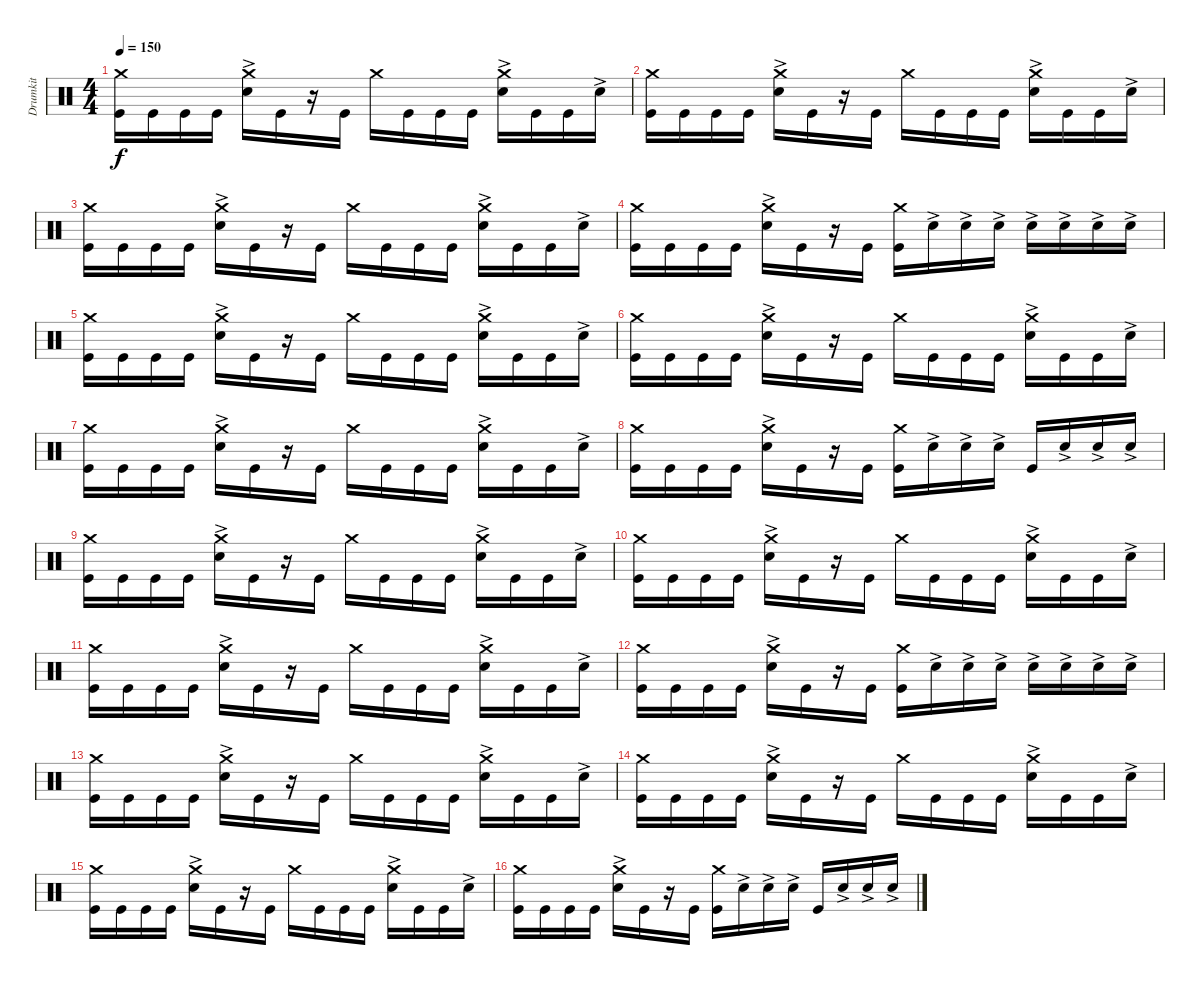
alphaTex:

\track ("Drumkit" "Drumkit") {instrument percussion}
\staff {score}
\articulation defaults
\ts (4 4)
\tempo 150
\clef neutral
\ks c
("Crash medium (hit)" "Kick (hit)").16{dy f} "Kick (hit)".16 "Kick (hit)".16 "Kick (hit)".16 ("Crash medium (hit)" "Snare (hit) 2"{ac}).16 "Kick (hit)".16 r.16 "Kick (hit)".16 "Crash medium (hit)".16 "Kick (hit)".16 "Kick (hit)".16 "Kick (hit)".16 ("Crash medium (hit)" "Snare (hit) 2"{ac}).16 "Kick (hit)".16 "Kick (hit)".16 "Snare (hit) 2"{ac}.16 |
("Crash medium (hit)" "Kick (hit)").16 "Kick (hit)".16 "Kick (hit)".16 "Kick (hit)".16 ("Crash medium (hit)" "Snare (hit) 2"{ac}).16 "Kick (hit)".16 r.16 "Kick (hit)".16 "Crash medium (hit)".16 "Kick (hit)".16 "Kick (hit)".16 "Kick (hit)".16 ("Crash medium (hit)" "Snare (hit) 2"{ac}).16 "Kick (hit)".16 "Kick (hit)".16 "Snare (hit) 2"{ac}.16 |
("Crash medium (hit)" "Kick (hit)").16 "Kick (hit)".16 "Kick (hit)".16 "Kick (hit)".16 ("Crash medium (hit)" "Snare (hit) 2"{ac}).16 "Kick (hit)".16 r.16 "Kick (hit)".16 "Crash medium (hit)".16 "Kick (hit)".16 "Kick (hit)".16 "Kick (hit)".16 ("Crash medium (hit)" "Snare (hit) 2"{ac}).16 "Kick (hit)".16 "Kick (hit)".16 "Snare (hit) 2"{ac}.16 |
("Crash medium (hit)" "Kick (hit)").16 "Kick (hit)".16 "Kick (hit)".16 "Kick (hit)".16 ("Crash medium (hit)" "Snare (hit) 2"{ac}).16 "Kick (hit)".16 r.16 "Kick (hit)".16 ("Kick (hit)" "Crash medium (hit)").16 "Snare (hit) 2"{ac}.16 "Snare (hit) 2"{ac}.16 "Snare (hit) 2"{ac}.16 "Snare (hit) 2"{ac}.16 "Snare (hit) 2"{ac}.16 "Snare (hit) 2"{ac}.16 "Snare (hit) 2"{ac}.16 |
("Crash medium (hit)" "Kick (hit)").16 "Kick (hit)".16 "Kick (hit)".16 "Kick (hit)".16 ("Crash medium (hit)" "Snare (hit) 2"{ac}).16 "Kick (hit)".16 r.16 "Kick (hit)".16 "Crash medium (hit)".16 "Kick (hit)".16 "Kick (hit)".16 "Kick (hit)".16 ("Crash medium (hit)" "Snare (hit) 2"{ac}).16 "Kick (hit)".16 "Kick (hit)".16 "Snare (hit) 2"{ac}.16 |
("Crash medium (hit)" "Kick (hit)").16 "Kick (hit)".16 "Kick (hit)".16 "Kick (hit)".16 ("Crash medium (hit)" "Snare (hit) 2"{ac}).16 "Kick (hit)".16 r.16 "Kick (hit)".16 "Crash medium (hit)".16 "Kick (hit)".16 "Kick (hit)".16 "Kick (hit)".16 ("Crash medium (hit)" "Snare (hit) 2"{ac}).16 "Kick (hit)".16 "Kick (hit)".16 "Snare (hit) 2"{ac}.16 |
("Crash medium (hit)" "Kick (hit)").16 "Kick (hit)".16 "Kick (hit)".16 "Kick (hit)".16 ("Crash medium (hit)" "Snare (hit) 2"{ac}).16 "Kick (hit)".16 r.16 "Kick (hit)".16 "Crash medium (hit)".16 "Kick (hit)".16 "Kick (hit)".16 "Kick (hit)".16 ("Crash medium (hit)" "Snare (hit) 2"{ac}).16 "Kick (hit)".16 "Kick (hit)".16 "Snare (hit) 2"{ac}.16 |
("Crash medium (hit)" "Kick (hit)").16 "Kick (hit)".16 "Kick (hit)".16 "Kick (hit)".16 ("Crash medium (hit)" "Snare (hit) 2"{ac}).16 "Kick (hit)".16 r.16 "Kick (hit)".16 ("Kick (hit)" "Crash medium (hit)").16 "Snare (hit) 2"{ac}.16 "Snare (hit) 2"{ac}.16 "Snare (hit) 2"{ac}.16 "Kick (hit)".16 "Snare (hit) 2"{ac}.16 "Snare (hit) 2"{ac}.16 "Snare (hit) 2"{ac}.16 |
("Crash medium (hit)" "Kick (hit)").16 "Kick (hit)".16 "Kick (hit)".16 "Kick (hit)".16 ("Crash medium (hit)" "Snare (hit) 2"{ac}).16 "Kick (hit)".16 r.16 "Kick (hit)".16 "Crash medium (hit)".16 "Kick (hit)".16 "Kick (hit)".16 "Kick (hit)".16 ("Crash medium (hit)" "Snare (hit) 2"{ac}).16 "Kick (hit)".16 "Kick (hit)".16 "Snare (hit) 2"{ac}.16 |
("Crash medium (hit)" "Kick (hit)").16 "Kick (hit)".16 "Kick (hit)".16 "Kick (hit)".16 ("Crash medium (hit)" "Snare (hit) 2"{ac}).16 "Kick (hit)".16 r.16 "Kick (hit)".16 "Crash medium (hit)".16 "Kick (hit)".16 "Kick (hit)".16 "Kick (hit)".16 ("Crash medium (hit)" "Snare (hit) 2"{ac}).16 "Kick (hit)".16 "Kick (hit)".16 "Snare (hit) 2"{ac}.16 |
("Crash medium (hit)" "Kick (hit)").16 "Kick (hit)".16 "Kick (hit)".16 "Kick (hit)".16 ("Crash medium (hit)" "Snare (hit) 2"{ac}).16 "Kick (hit)".16 r.16 "Kick (hit)".16 "Crash medium (hit)".16 "Kick (hit)".16 "Kick (hit)".16 "Kick (hit)".16 ("Crash medium (hit)" "Snare (hit) 2"{ac}).16 "Kick (hit)".16 "Kick (hit)".16 "Snare (hit) 2"{ac}.16 |
("Crash medium (hit)" "Kick (hit)").16 "Kick (hit)".16 "Kick (hit)".16 "Kick (hit)".16 ("Crash medium (hit)" "Snare (hit) 2"{ac}).16 "Kick (hit)".16 r.16 "Kick (hit)".16 ("Kick (hit)" "Crash medium (hit)").16 "Snare (hit) 2"{ac}.16 "Snare (hit) 2"{ac}.16 "Snare (hit) 2"{ac}.16 "Snare (hit) 2"{ac}.16 "Snare (hit) 2"{ac}.16 "Snare (hit) 2"{ac}.16 "Snare (hit) 2"{ac}.16 |
("Crash medium (hit)" "Kick (hit)").16 "Kick (hit)".16 "Kick (hit)".16 "Kick (hit)".16 ("Crash medium (hit)" "Snare (hit) 2"{ac}).16 "Kick (hit)".16 r.16 "Kick (hit)".16 "Crash medium (hit)".16 "Kick (hit)".16 "Kick (hit)".16 "Kick (hit)".16 ("Crash medium (hit)" "Snare (hit) 2"{ac}).16 "Kick (hit)".16 "Kick (hit)".16 "Snare (hit) 2"{ac}.16 |
("Crash medium (hit)" "Kick (hit)").16 "Kick (hit)".16 "Kick (hit)".16 "Kick (hit)".16 ("Crash medium (hit)" "Snare (hit) 2"{ac}).16 "Kick (hit)".16 r.16 "Kick (hit)".16 "Crash medium (hit)".16 "Kick (hit)".16 "Kick (hit)".16 "Kick (hit)".16 ("Crash medium (hit)" "Snare (hit) 2"{ac}).16 "Kick (hit)".16 "Kick (hit)".16 "Snare (hit) 2"{ac}.16 |
("Crash medium (hit)" "Kick (hit)").16 "Kick (hit)".16 "Kick (hit)".16 "Kick (hit)".16 ("Crash medium (hit)" "Snare (hit) 2"{ac}).16 "Kick (hit)".16 r.16 "Kick (hit)".16 "Crash medium (hit)".16 "Kick (hit)".16 "Kick (hit)".16 "Kick (hit)".16 ("Crash medium (hit)" "Snare (hit) 2"{ac}).16 "Kick (hit)".16 "Kick (hit)".16 "Snare (hit) 2"{ac}.16 |
("Crash medium (hit)" "Kick (hit)").16 "Kick (hit)".16 "Kick (hit)".16 "Kick (hit)".16 ("Crash medium (hit)" "Snare (hit) 2"{ac}).16 "Kick (hit)".16 r.16 "Kick (hit)".16 ("Kick (hit)" "Crash medium (hit)").16 "Snare (hit) 2"{ac}.16 "Snare (hit) 2"{ac}.16 "Snare (hit) 2"{ac}.16 "Kick (hit)".16 "Snare (hit) 2"{ac}.16 "Snare (hit) 2"{ac}.16 "Snare (hit) 2"{ac}.16
